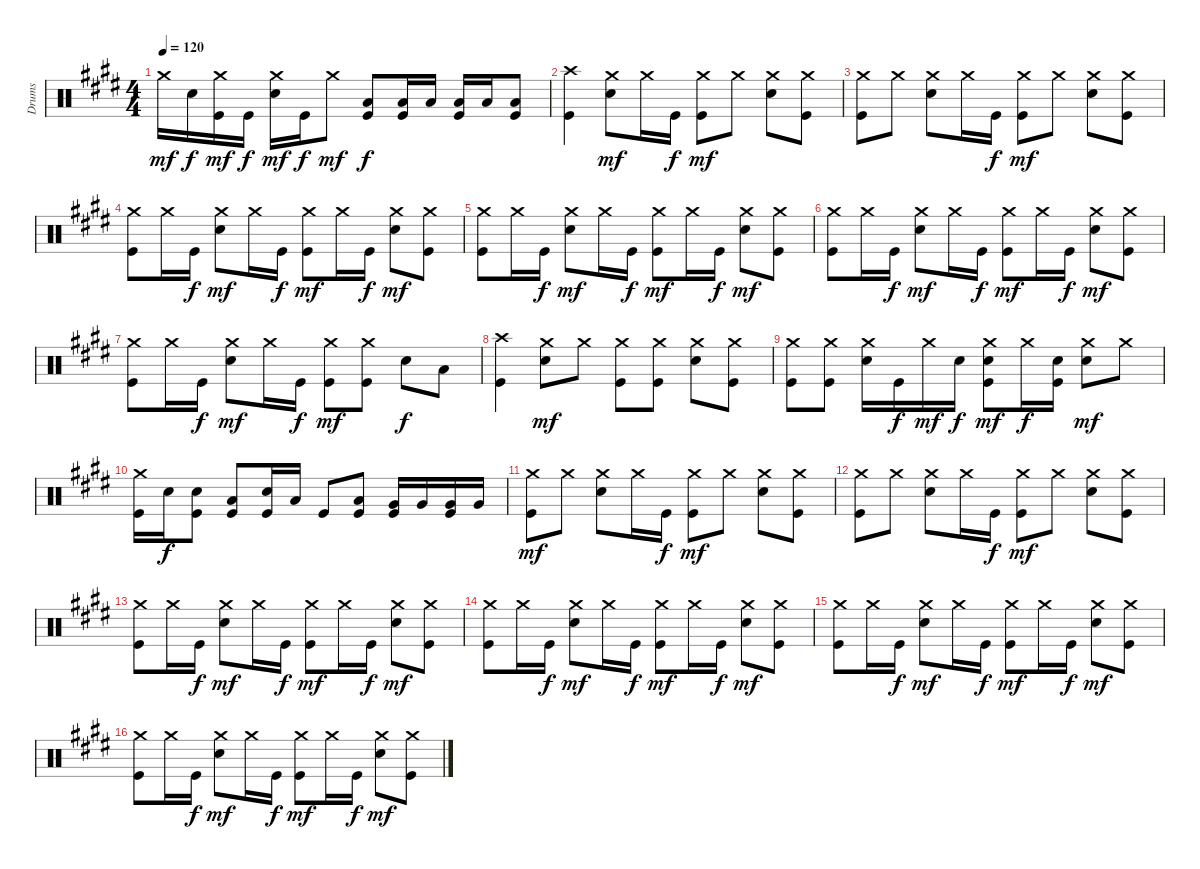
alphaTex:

\track ("Drums" "Drums") {instrument percussion}
\staff {score}
\articulation defaults
\ts (4 4)
\tempo 120
\clef neutral
\ks e "Crash medium (hit)".16{dy mf} "Snare (hit) 2".16{dy f}
("Crash medium (hit)" "Kick (hit)").16{dy mf} "Kick (hit)".16{dy f} ("Crash medium (hit)" "Snare (hit) 2").16{dy mf} "Kick (hit)".16{dy f} "Crash medium (hit)".8{dy mf} ("Low Tom (hit)" "Kick (hit)").8{dy f} ("Low Tom (hit)" "Kick (hit)").16 "Low Tom (hit)".16 ("Low Tom (hit)" "Kick (hit)").16 "Low Tom (hit)".16 ("Low Tom (hit)" "Kick (hit)").8 |
("Crash high (hit)" "Kick (hit)").4 ("Crash medium (hit)" "Snare (hit) 2").8{dy mf} "Crash medium (hit)".16 "Kick (hit)".16{dy f} ("Crash medium (hit)" "Kick (hit)").8{dy mf} "Crash medium (hit)".8 ("Crash medium (hit)" "Snare (hit) 2").8 ("Crash medium (hit)" "Kick (hit)").8 |
("Crash medium (hit)" "Kick (hit)").8 "Crash medium (hit)".8 ("Crash medium (hit)" "Snare (hit) 2").8 "Crash medium (hit)".16 "Kick (hit)".16{dy f} ("Crash medium (hit)" "Kick (hit)").8{dy mf} "Crash medium (hit)".8 ("Crash medium (hit)" "Snare (hit) 2").8 ("Crash medium (hit)" "Kick (hit)").8 |
("Crash medium (hit)" "Kick (hit)").8 "Crash medium (hit)".16 "Kick (hit)".16{dy f} ("Crash medium (hit)" "Snare (hit) 2").8{dy mf} "Crash medium (hit)".16 "Kick (hit)".16{dy f} ("Crash medium (hit)" "Kick (hit)").8{dy mf} "Crash medium (hit)".16 "Kick (hit)".16{dy f} ("Crash medium (hit)" "Snare (hit) 2").8{dy mf} ("Crash medium (hit)" "Kick (hit)").8 |
("Crash medium (hit)" "Kick (hit)").8 "Crash medium (hit)".16 "Kick (hit)".16{dy f} ("Crash medium (hit)" "Snare (hit) 2").8{dy mf} "Crash medium (hit)".16 "Kick (hit)".16{dy f} ("Crash medium (hit)" "Kick (hit)").8{dy mf} "Crash medium (hit)".16 "Kick (hit)".16{dy f} ("Crash medium (hit)" "Snare (hit) 2").8{dy mf} ("Crash medium (hit)" "Kick (hit)").8 |
("Crash medium (hit)" "Kick (hit)").8 "Crash medium (hit)".16 "Kick (hit)".16{dy f} ("Crash medium (hit)" "Snare (hit) 2").8{dy mf} "Crash medium (hit)".16 "Kick (hit)".16{dy f} ("Crash medium (hit)" "Kick (hit)").8{dy mf} "Crash medium (hit)".16 "Kick (hit)".16{dy f} ("Crash medium (hit)" "Snare (hit) 2").8{dy mf} ("Crash medium (hit)" "Kick (hit)").8 |
("Crash medium (hit)" "Kick (hit)").8 "Crash medium (hit)".16 "Kick (hit)".16{dy f} ("Crash medium (hit)" "Snare (hit) 2").8{dy mf} "Crash medium (hit)".16 "Kick (hit)".16{dy f} ("Crash medium (hit)" "Kick (hit)").8{dy mf} ("Crash medium (hit)" "Kick (hit)").8 "Snare (hit) 2".8{dy f} "Low Tom (hit)".8 |
("Crash high (hit)" "Kick (hit)").4 ("Crash medium (hit)" "Snare (hit) 2").8{dy mf} "Crash medium (hit)".8 ("Crash medium (hit)" "Kick (hit)").8 ("Crash medium (hit)" "Kick (hit)").8 ("Crash medium (hit)" "Snare (hit) 2").8 ("Crash medium (hit)" "Kick (hit)").8 |
("Crash medium (hit)" "Kick (hit)").8 ("Crash medium (hit)" "Kick (hit)").8 ("Crash medium (hit)" "Snare (hit) 2").16 "Kick (hit)".16{dy f} "Crash medium (hit)".16{dy mf} "Snare (hit) 2".16{dy f} ("Crash medium (hit)" "Snare (hit) 2" "Kick (hit)").8{dy mf} "Crash medium (hit)".16{dy f} ("Snare (hit) 2" "Kick (hit)").16 ("Crash medium (hit)" "Snare (hit) 2").8{dy mf} "Crash medium (hit)".8 |
("Crash medium (hit)" "Kick (hit)").16 "Snare (hit) 2".16{dy f} ("Snare (hit) 2" "Kick (hit)").8 ("Low Tom (hit)" "Kick (hit)").8 ("Snare (hit) 2" "Kick (hit)").16 "Low Tom (hit)".16 "Kick (hit)".8 ("Low Tom (hit)" "Kick (hit)").8 ("Very Low Tom (hit)" "Kick (hit)").16 "Very Low Tom (hit)".16 ("Very Low Tom (hit)" "Kick (hit)").16 "Very Low Tom (hit)".16 |
("Crash medium (hit)" "Kick (hit)").8{dy mf} "Crash medium (hit)".8 ("Crash medium (hit)" "Snare (hit) 2").8 "Crash medium (hit)".16 "Kick (hit)".16{dy f} ("Crash medium (hit)" "Kick (hit)").8{dy mf} "Crash medium (hit)".8 ("Crash medium (hit)" "Snare (hit) 2").8 ("Crash medium (hit)" "Kick (hit)").8 |
("Crash medium (hit)" "Kick (hit)").8 "Crash medium (hit)".8 ("Crash medium (hit)" "Snare (hit) 2").8 "Crash medium (hit)".16 "Kick (hit)".16{dy f} ("Crash medium (hit)" "Kick (hit)").8{dy mf} "Crash medium (hit)".8 ("Crash medium (hit)" "Snare (hit) 2").8 ("Crash medium (hit)" "Kick (hit)").8 |
("Crash medium (hit)" "Kick (hit)").8 "Crash medium (hit)".16 "Kick (hit)".16{dy f} ("Crash medium (hit)" "Snare (hit) 2").8{dy mf} "Crash medium (hit)".16 "Kick (hit)".16{dy f} ("Crash medium (hit)" "Kick (hit)").8{dy mf} "Crash medium (hit)".16 "Kick (hit)".16{dy f} ("Crash medium (hit)" "Snare (hit) 2").8{dy mf} ("Crash medium (hit)" "Kick (hit)").8 |
("Crash medium (hit)" "Kick (hit)").8 "Crash medium (hit)".16 "Kick (hit)".16{dy f} ("Crash medium (hit)" "Snare (hit) 2").8{dy mf} "Crash medium (hit)".16 "Kick (hit)".16{dy f} ("Crash medium (hit)" "Kick (hit)").8{dy mf} "Crash medium (hit)".16 "Kick (hit)".16{dy f} ("Crash medium (hit)" "Snare (hit) 2").8{dy mf} ("Crash medium (hit)" "Kick (hit)").8 |
("Crash medium (hit)" "Kick (hit)").8 "Crash medium (hit)".16 "Kick (hit)".16{dy f} ("Crash medium (hit)" "Snare (hit) 2").8{dy mf} "Crash medium (hit)".16 "Kick (hit)".16{dy f} ("Crash medium (hit)" "Kick (hit)").8{dy mf} "Crash medium (hit)".16 "Kick (hit)".16{dy f} ("Crash medium (hit)" "Snare (hit) 2").8{dy mf} ("Crash medium (hit)" "Kick (hit)").8 |
("Crash medium (hit)" "Kick (hit)").8 "Crash medium (hit)".16 "Kick (hit)".16{dy f} ("Crash medium (hit)" "Snare (hit) 2").8{dy mf} "Crash medium (hit)".16 "Kick (hit)".16{dy f} ("Crash medium (hit)" "Kick (hit)").8{dy mf} "Crash medium (hit)".16 "Kick (hit)".16{dy f} ("Crash medium (hit)" "Snare (hit) 2").8{dy mf} ("Crash medium (hit)" "Kick (hit)").8
